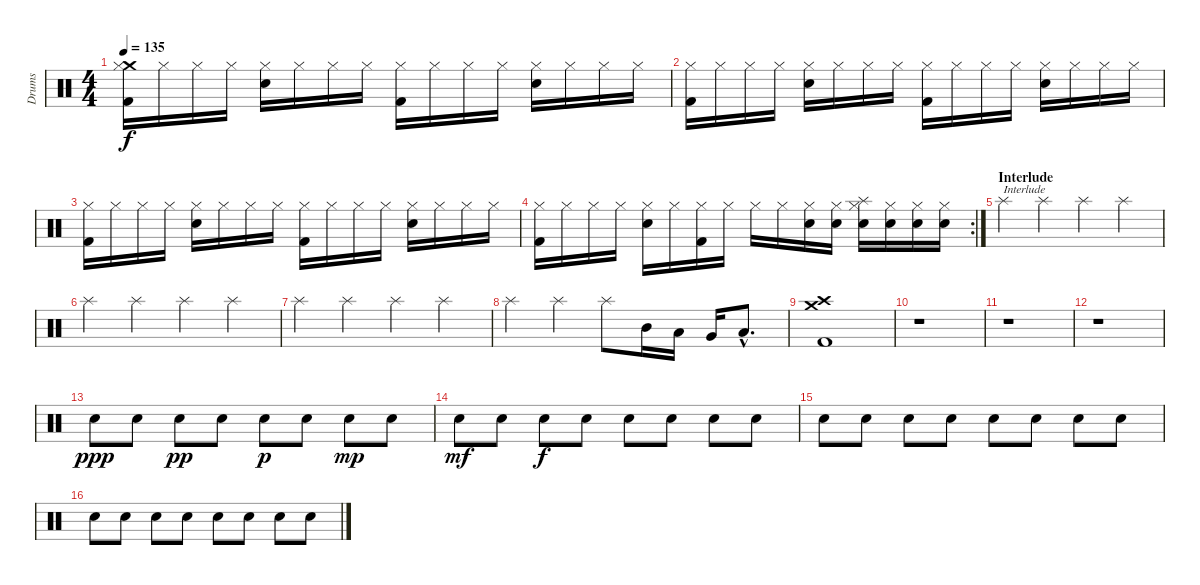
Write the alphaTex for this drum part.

\track ("Drums" "Drums") {instrument percussion}
\staff {score}
\articulation defaults
\ts (4 4)
\tempo 135
\clef neutral
\ks c
("Crash medium (hit)" "Hi-Hat (closed)" "Kick (hit) 2").16{dy f} "Hi-Hat (closed)".16 "Hi-Hat (closed)".16 "Hi-Hat (closed)".16 ("Hi-Hat (closed)" "Snare (hit) 2").16 "Hi-Hat (closed)".16 "Hi-Hat (closed)".16 "Hi-Hat (closed)".16 ("Hi-Hat (closed)" "Kick (hit) 2").16 "Hi-Hat (closed)".16 "Hi-Hat (closed)".16 "Hi-Hat (closed)".16 ("Hi-Hat (closed)" "Snare (hit) 2").16 "Hi-Hat (closed)".16 "Hi-Hat (closed)".16 "Hi-Hat (closed)".16 |
("Hi-Hat (closed)" "Kick (hit) 2").16 "Hi-Hat (closed)".16 "Hi-Hat (closed)".16 "Hi-Hat (closed)".16 ("Hi-Hat (closed)" "Snare (hit) 2").16 "Hi-Hat (closed)".16 "Hi-Hat (closed)".16 "Hi-Hat (closed)".16 ("Hi-Hat (closed)" "Kick (hit) 2").16 "Hi-Hat (closed)".16 "Hi-Hat (closed)".16 "Hi-Hat (closed)".16 ("Hi-Hat (closed)" "Snare (hit) 2").16 "Hi-Hat (closed)".16 "Hi-Hat (closed)".16 "Hi-Hat (closed)".16 |
("Hi-Hat (closed)" "Kick (hit) 2").16 "Hi-Hat (closed)".16 "Hi-Hat (closed)".16 "Hi-Hat (closed)".16 ("Hi-Hat (closed)" "Snare (hit) 2").16 "Hi-Hat (closed)".16 "Hi-Hat (closed)".16 "Hi-Hat (closed)".16 ("Hi-Hat (closed)" "Kick (hit) 2").16 "Hi-Hat (closed)".16 "Hi-Hat (closed)".16 "Hi-Hat (closed)".16 ("Hi-Hat (closed)" "Snare (hit) 2").16 "Hi-Hat (closed)".16 "Hi-Hat (closed)".16 "Hi-Hat (closed)".16 |
\rc 2
("Hi-Hat (closed)" "Kick (hit) 2").16 "Hi-Hat (closed)".16 "Hi-Hat (closed)".16 "Hi-Hat (closed)".16 ("Hi-Hat (closed)" "Snare (hit) 2").16 "Hi-Hat (closed)".16 ("Hi-Hat (closed)" "Kick (hit) 2").16 "Hi-Hat (closed)".16 "Hi-Hat (closed)".16 "Hi-Hat (closed)".16 ("Hi-Hat (closed)" "Snare (hit) 2").16 ("Hi-Hat (closed)" "Snare (hit) 2").16 ("Splash (hit)" "Hi-Hat (closed)" "Snare (hit) 2").16 ("Hi-Hat (closed)" "Snare (hit) 2").16 ("Hi-Hat (closed)" "Snare (hit) 2").16 ("Hi-Hat (closed)" "Snare (hit) 2").16 |
\section ("" "Interlude")
"Splash (hit)".4{txt "Interlude"} "Splash (hit)".4 "Splash (hit)".4 "Splash (hit)".4 |
"Splash (hit)".4 "Splash (hit)".4 "Splash (hit)".4 "Splash (hit)".4 |
"Splash (hit)".4 "Splash (hit)".4 "Splash (hit)".4 "Splash (hit)".4 |
"Splash (hit)".4 "Splash (hit)".4 "Splash (hit)".8 "Mid Tom (hit)".16 "Low Tom (hit)".16 "Very Low Tom (hit)".16 "Low Floor Tom (hit)"{hac}.8{d} |
("Crash medium (hit)" "Crash high (hit)" "Kick (hit) 2").1 |
r.1 |
r.1 |
r.1 |
"Snare (hit) 2".8{dy ppp} "Snare (hit) 2".8 "Snare (hit) 2".8{dy pp} "Snare (hit) 2".8 "Snare (hit) 2".8{dy p} "Snare (hit) 2".8 "Snare (hit) 2".8{dy mp} "Snare (hit) 2".8 |
"Snare (hit) 2".8{dy mf} "Snare (hit) 2".8 "Snare (hit) 2".8{dy f} "Snare (hit) 2".8 "Snare (hit) 2".8 "Snare (hit) 2".8 "Snare (hit) 2".8 "Snare (hit) 2".8 |
"Snare (hit) 2".8 "Snare (hit) 2".8 "Snare (hit) 2".8 "Snare (hit) 2".8 "Snare (hit) 2".8 "Snare (hit) 2".8 "Snare (hit) 2".8 "Snare (hit) 2".8 |
"Snare (hit) 2".8 "Snare (hit) 2".8 "Snare (hit) 2".8 "Snare (hit) 2".8 "Snare (hit) 2".8 "Snare (hit) 2".8 "Snare (hit) 2".8 "Snare (hit) 2".8
